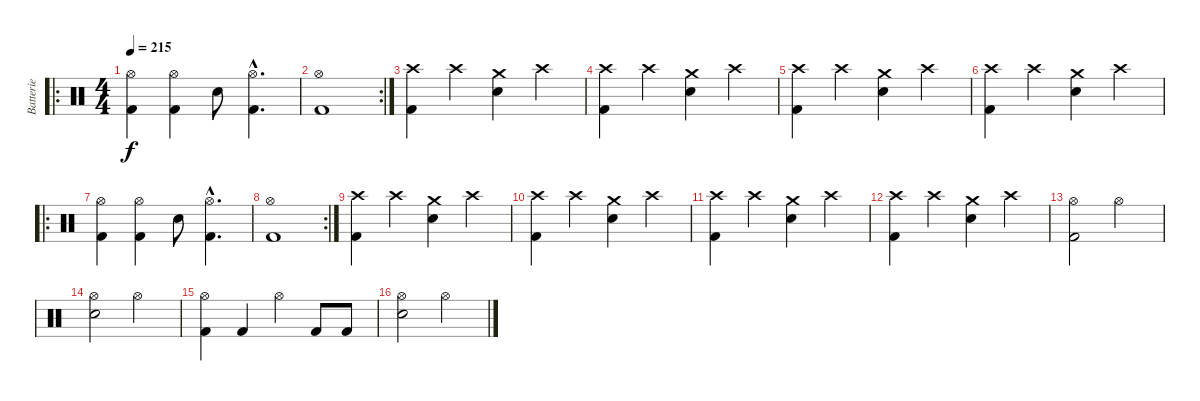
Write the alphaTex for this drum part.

\track ("Batterie" "Batterie") {instrument percussion}
\staff {score}
\articulation defaults
\ro
\ts (4 4)
\tempo 215
\clef neutral
\ks c
("Hi-Hat (open)" "Kick (hit) 2").4{dy f} ("Hi-Hat (open)" "Kick (hit) 2").4 "Electric Snare (hit)".8 ("Hi-Hat (open)"{hac} "Kick (hit) 2"{hac}).4{d} |
\rc 2
("Hi-Hat (open)" "Kick (hit) 2").1 |
("Crash high (hit)" "Kick (hit) 2").4 "Crash high (hit)".4 ("Crash medium (hit)" "Electric Snare (hit)").4 "Crash high (hit)".4 |
("Crash high (hit)" "Kick (hit) 2").4 "Crash high (hit)".4 ("Crash medium (hit)" "Electric Snare (hit)").4 "Crash high (hit)".4 |
("Crash high (hit)" "Kick (hit) 2").4 "Crash high (hit)".4 ("Crash medium (hit)" "Electric Snare (hit)").4 "Crash high (hit)".4 |
("Crash high (hit)" "Kick (hit) 2").4 "Crash high (hit)".4 ("Crash medium (hit)" "Electric Snare (hit)").4 "Crash high (hit)".4 |
\ro
("Hi-Hat (open)" "Kick (hit) 2").4 ("Hi-Hat (open)" "Kick (hit) 2").4 "Electric Snare (hit)".8 ("Hi-Hat (open)"{hac} "Kick (hit) 2"{hac}).4{d} |
\rc 2
("Hi-Hat (open)" "Kick (hit) 2").1 |
("Crash high (hit)" "Kick (hit) 2").4 "Crash high (hit)".4 ("Crash medium (hit)" "Electric Snare (hit)").4 "Crash high (hit)".4 |
("Crash high (hit)" "Kick (hit) 2").4 "Crash high (hit)".4 ("Crash medium (hit)" "Electric Snare (hit)").4 "Crash high (hit)".4 |
("Crash high (hit)" "Kick (hit) 2").4 "Crash high (hit)".4 ("Crash medium (hit)" "Electric Snare (hit)").4 "Crash high (hit)".4 |
("Crash high (hit)" "Kick (hit) 2").4 "Crash high (hit)".4 ("Crash medium (hit)" "Electric Snare (hit)").4 "Crash high (hit)".4 |
("Hi-Hat (open)" "Kick (hit) 2").2 "Hi-Hat (open)".2 |
("Hi-Hat (open)" "Electric Snare (hit)").2 "Hi-Hat (open)".2 |
("Hi-Hat (open)" "Kick (hit) 2").4 "Kick (hit) 2".4 "Hi-Hat (open)".4 "Kick (hit) 2".8 "Kick (hit) 2".8 |
("Hi-Hat (open)" "Electric Snare (hit)").2 "Hi-Hat (open)".2
